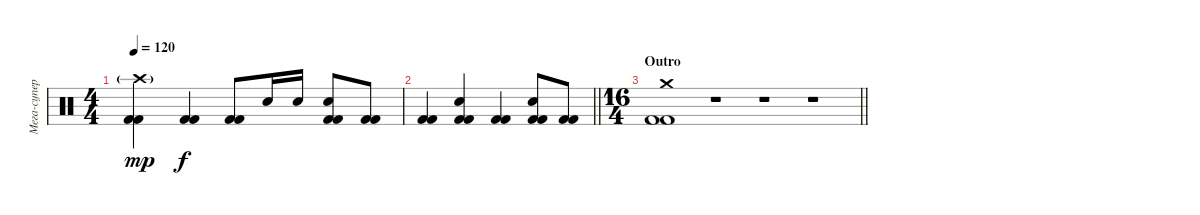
\track ("Мега-супер-охеренный драммер" "Мега-супер") {instrument percussion}
\staff {score}
\articulation defaults
\ts (4 4)
\tempo 120
\clef neutral
\ks c
("Crash high (hit)"{g} "Kick (hit) 2" "Kick (hit) 2").4{dy mp} ("Kick (hit) 2" "Kick (hit) 2").4{dy f} ("Kick (hit) 2" "Kick (hit) 2").8 "Electric Snare (hit)".16 "Electric Snare (hit)".16 ("Electric Snare (hit)" "Kick (hit) 2" "Kick (hit) 2").8 ("Kick (hit) 2" "Kick (hit) 2").8 |
\barLineRight lightlight
("Kick (hit) 2" "Kick (hit) 2").4 ("Electric Snare (hit)" "Kick (hit) 2" "Kick (hit) 2").4 ("Kick (hit) 2" "Kick (hit) 2").4 ("Electric Snare (hit)" "Kick (hit) 2" "Kick (hit) 2").8 ("Kick (hit) 2" "Kick (hit) 2").8 |
\ts (16 4)
\section ("" "Outro")
\barLineRight lightlight
("Crash medium (hit)" "Kick (hit) 2" "Kick (hit) 2").1 r.1 r.1 r.1
